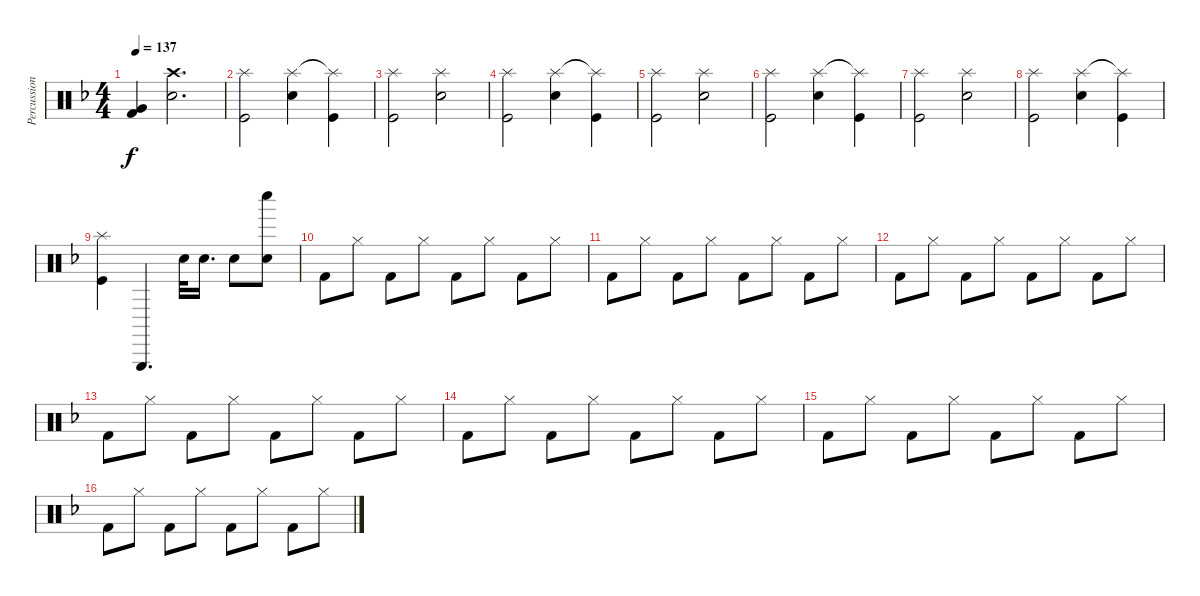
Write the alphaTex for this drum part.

\track ("Percussion" "Percussion") {instrument percussion}
\staff {score}
\articulation defaults
\ts (4 4)
\tempo 137
\clef neutral
\ks f
("Very Low Tom (hit)" "Kick (hit) 2").4{dy f} ("Crash high (hit)" "Electric Snare (hit)").2{d} |
("Splash (hit)" "Kick (hit)").2 ("Splash (hit)" "Snare (hit) 2").4 ("Splash (hit)"{t} "Kick (hit)").4 |
("Splash (hit)" "Kick (hit)").2 ("Splash (hit)" "Snare (hit) 2").2 |
("Splash (hit)" "Kick (hit)").2 ("Splash (hit)" "Snare (hit) 2").4 ("Splash (hit)"{t} "Kick (hit)").4 |
("Splash (hit)" "Kick (hit)").2 ("Splash (hit)" "Snare (hit) 2").2 |
("Splash (hit)" "Kick (hit)").2 ("Splash (hit)" "Snare (hit) 2").4 ("Splash (hit)"{t} "Kick (hit)").4 |
("Splash (hit)" "Kick (hit)").2 ("Splash (hit)" "Snare (hit) 2").2 |
("Splash (hit)" "Kick (hit)").2 ("Splash (hit)" "Snare (hit) 2").4 ("Splash (hit)"{t} "Kick (hit)").4 |
("Splash (hit)" "Kick (hit)").4 "Triangle (hit)".4{d} "Electric Snare (hit)".32 "Electric Snare (hit)".16{d} "Electric Snare (hit)".8 ("Whistle low (hit)" "Electric Snare (hit)").8 |
"Kick (hit) 2".8{volume 16} "Hi-Hat (closed)".8 "Kick (hit) 2".8 "Hi-Hat (closed)".8 "Kick (hit) 2".8 "Hi-Hat (closed)".8 "Kick (hit) 2".8 "Hi-Hat (closed)".8 |
"Kick (hit) 2".8 "Hi-Hat (closed)".8 "Kick (hit) 2".8 "Hi-Hat (closed)".8 "Kick (hit) 2".8 "Hi-Hat (closed)".8 "Kick (hit) 2".8 "Hi-Hat (closed)".8 |
"Kick (hit) 2".8 "Hi-Hat (closed)".8 "Kick (hit) 2".8 "Hi-Hat (closed)".8 "Kick (hit) 2".8 "Hi-Hat (closed)".8 "Kick (hit) 2".8 "Hi-Hat (closed)".8 |
"Kick (hit) 2".8 "Hi-Hat (closed)".8 "Kick (hit) 2".8 "Hi-Hat (closed)".8 "Kick (hit) 2".8 "Hi-Hat (closed)".8 "Kick (hit) 2".8 "Hi-Hat (closed)".8 |
"Kick (hit) 2".8 "Hi-Hat (closed)".8 "Kick (hit) 2".8 "Hi-Hat (closed)".8 "Kick (hit) 2".8 "Hi-Hat (closed)".8 "Kick (hit) 2".8 "Hi-Hat (closed)".8 |
"Kick (hit) 2".8 "Hi-Hat (closed)".8 "Kick (hit) 2".8 "Hi-Hat (closed)".8 "Kick (hit) 2".8 "Hi-Hat (closed)".8 "Kick (hit) 2".8 "Hi-Hat (closed)".8 |
"Kick (hit) 2".8 "Hi-Hat (closed)".8 "Kick (hit) 2".8 "Hi-Hat (closed)".8 "Kick (hit) 2".8 "Hi-Hat (closed)".8 "Kick (hit) 2".8 "Hi-Hat (closed)".8
